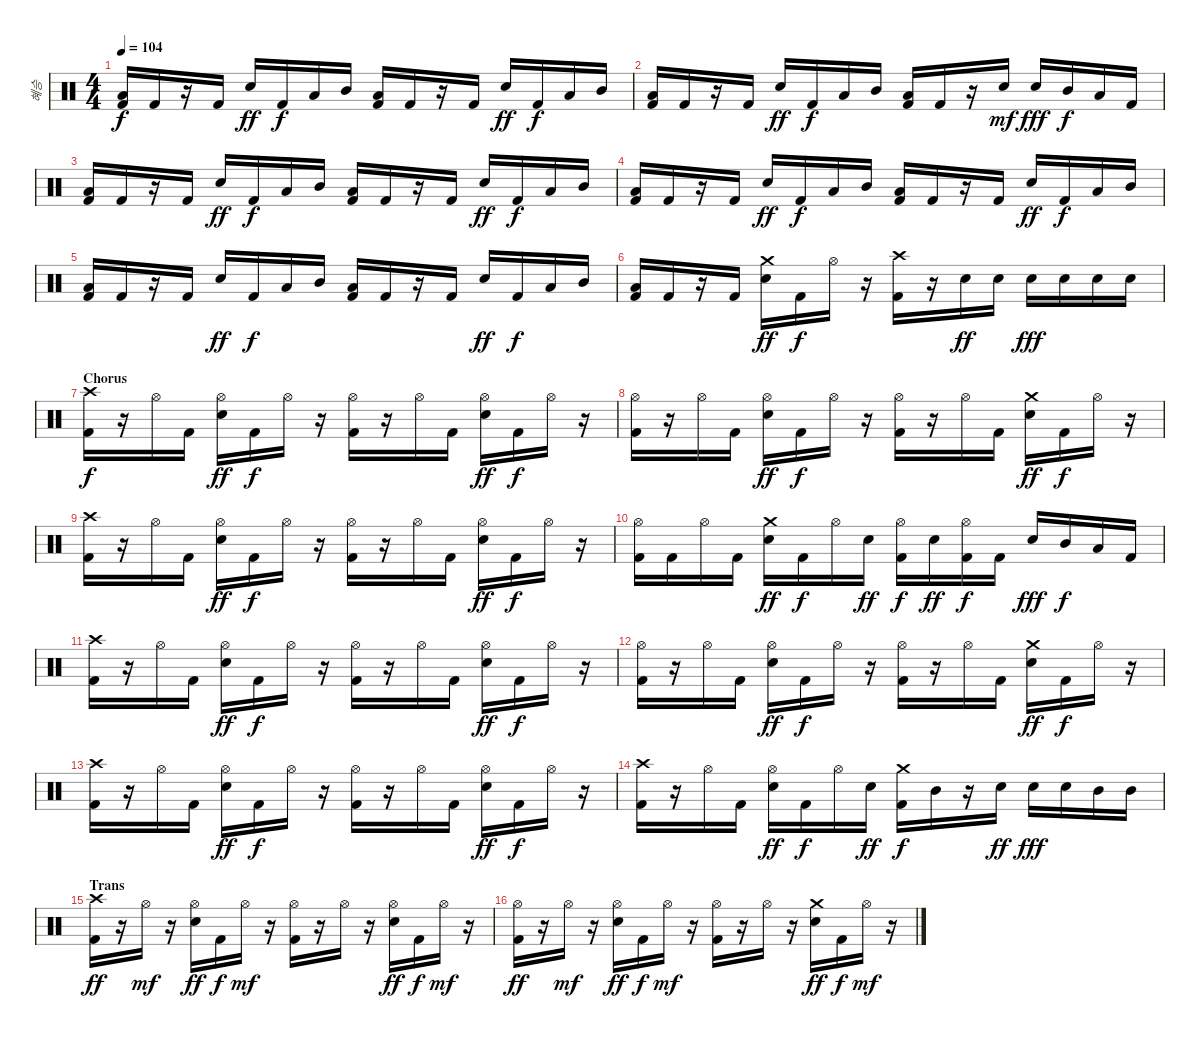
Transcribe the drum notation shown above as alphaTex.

\track ("혜승" "혜승") {instrument percussion}
\staff {score}
\articulation defaults
\ts (4 4)
\tempo 104
\clef neutral
\ks c
("Low Tom (hit)" "Kick (hit) 2").16{dy f} "Kick (hit) 2".16 r.16 "Kick (hit) 2".16 "Electric Snare (hit)".16{dy ff} "Kick (hit) 2".16{dy f} "Low Tom (hit)".16 "Mid Tom (hit)".16 ("Low Tom (hit)" "Kick (hit) 2").16 "Kick (hit) 2".16 r.16 "Kick (hit) 2".16 "Electric Snare (hit)".16{dy ff} "Kick (hit) 2".16{dy f} "Low Tom (hit)".16 "Mid Tom (hit)".16 |
("Low Tom (hit)" "Kick (hit) 2").16 "Kick (hit) 2".16 r.16 "Kick (hit) 2".16 "Electric Snare (hit)".16{dy ff} "Kick (hit) 2".16{dy f} "Low Tom (hit)".16 "Mid Tom (hit)".16 ("Low Tom (hit)" "Kick (hit) 2").16 "Kick (hit) 2".16 r.16 "Electric Snare (hit)".16{dy mf} "Electric Snare (hit)".16{dy fff} "Mid Tom (hit)".16{dy f} "Low Tom (hit)".16 "Kick (hit) 2".16 |
("Low Tom (hit)" "Kick (hit) 2").16 "Kick (hit) 2".16 r.16 "Kick (hit) 2".16 "Electric Snare (hit)".16{dy ff} "Kick (hit) 2".16{dy f} "Low Tom (hit)".16 "Mid Tom (hit)".16 ("Low Tom (hit)" "Kick (hit) 2").16 "Kick (hit) 2".16 r.16 "Kick (hit) 2".16 "Electric Snare (hit)".16{dy ff} "Kick (hit) 2".16{dy f} "Low Tom (hit)".16 "Mid Tom (hit)".16 |
("Low Tom (hit)" "Kick (hit) 2").16 "Kick (hit) 2".16 r.16 "Kick (hit) 2".16 "Electric Snare (hit)".16{dy ff} "Kick (hit) 2".16{dy f} "Low Tom (hit)".16 "Mid Tom (hit)".16 ("Low Tom (hit)" "Kick (hit) 2").16 "Kick (hit) 2".16 r.16 "Kick (hit) 2".16 "Electric Snare (hit)".16{dy ff} "Kick (hit) 2".16{dy f} "Low Tom (hit)".16 "Mid Tom (hit)".16 |
("Low Tom (hit)" "Kick (hit) 2").16 "Kick (hit) 2".16 r.16 "Kick (hit) 2".16 "Electric Snare (hit)".16{dy ff} "Kick (hit) 2".16{dy f} "Low Tom (hit)".16 "Mid Tom (hit)".16 ("Low Tom (hit)" "Kick (hit) 2").16 "Kick (hit) 2".16 r.16 "Kick (hit) 2".16 "Electric Snare (hit)".16{dy ff} "Kick (hit) 2".16{dy f} "Low Tom (hit)".16 "Mid Tom (hit)".16 |
("Low Tom (hit)" "Kick (hit) 2").16 "Kick (hit) 2".16 r.16 "Kick (hit) 2".16 ("Crash medium (hit)" "Electric Snare (hit)").16{dy ff} "Kick (hit) 2".16{dy f} "Hi-Hat (open)".16 r.16 ("Crash high (hit)" "Kick (hit) 2").16 r.16 "Electric Snare (hit)".16{dy ff} "Electric Snare (hit)".16 "Electric Snare (hit)".16{dy fff} "Electric Snare (hit)".16 "Electric Snare (hit)".16 "Electric Snare (hit)".16 |
\section ("" "Chorus")
("Crash high (hit)" "Kick (hit) 2").16{dy f} r.16 "Hi-Hat (open)".16 "Kick (hit) 2".16 ("Hi-Hat (open)" "Electric Snare (hit)").16{dy ff} "Kick (hit) 2".16{dy f} "Hi-Hat (open)".16 r.16 ("Hi-Hat (open)" "Kick (hit) 2").16 r.16 "Hi-Hat (open)".16 "Kick (hit) 2".16 ("Hi-Hat (open)" "Electric Snare (hit)").16{dy ff} "Kick (hit) 2".16{dy f} "Hi-Hat (open)".16 r.16 |
("Hi-Hat (open)" "Kick (hit) 2").16 r.16 "Hi-Hat (open)".16 "Kick (hit) 2".16 ("Hi-Hat (open)" "Electric Snare (hit)").16{dy ff} "Kick (hit) 2".16{dy f} "Hi-Hat (open)".16 r.16 ("Hi-Hat (open)" "Kick (hit) 2").16 r.16 "Hi-Hat (open)".16 "Kick (hit) 2".16 ("Crash medium (hit)" "Electric Snare (hit)").16{dy ff} "Kick (hit) 2".16{dy f} "Hi-Hat (open)".16 r.16 |
("Crash high (hit)" "Kick (hit) 2").16 r.16 "Hi-Hat (open)".16 "Kick (hit) 2".16 ("Hi-Hat (open)" "Electric Snare (hit)").16{dy ff} "Kick (hit) 2".16{dy f} "Hi-Hat (open)".16 r.16 ("Hi-Hat (open)" "Kick (hit) 2").16 r.16 "Hi-Hat (open)".16 "Kick (hit) 2".16 ("Hi-Hat (open)" "Electric Snare (hit)").16{dy ff} "Kick (hit) 2".16{dy f} "Hi-Hat (open)".16 r.16 |
("Hi-Hat (open)" "Kick (hit) 2").16 "Kick (hit) 2".16 "Hi-Hat (open)".16 "Kick (hit) 2".16 ("Crash medium (hit)" "Electric Snare (hit)").16{dy ff} "Kick (hit) 2".16{dy f} "Hi-Hat (open)".16 "Electric Snare (hit)".16{dy ff} ("Hi-Hat (open)" "Kick (hit) 2").16{dy f} "Electric Snare (hit)".16{dy ff} ("Hi-Hat (open)" "Kick (hit) 2").16{dy f} "Kick (hit) 2".16 "Electric Snare (hit)".16{dy fff} "Mid Tom (hit)".16{dy f} "Low Tom (hit)".16 "Kick (hit) 2".16 |
("Crash high (hit)" "Kick (hit) 2").16 r.16 "Hi-Hat (open)".16 "Kick (hit) 2".16 ("Hi-Hat (open)" "Electric Snare (hit)").16{dy ff} "Kick (hit) 2".16{dy f} "Hi-Hat (open)".16 r.16 ("Hi-Hat (open)" "Kick (hit) 2").16 r.16 "Hi-Hat (open)".16 "Kick (hit) 2".16 ("Hi-Hat (open)" "Electric Snare (hit)").16{dy ff} "Kick (hit) 2".16{dy f} "Hi-Hat (open)".16 r.16 |
("Hi-Hat (open)" "Kick (hit) 2").16 r.16 "Hi-Hat (open)".16 "Kick (hit) 2".16 ("Hi-Hat (open)" "Electric Snare (hit)").16{dy ff} "Kick (hit) 2".16{dy f} "Hi-Hat (open)".16 r.16 ("Hi-Hat (open)" "Kick (hit) 2").16 r.16 "Hi-Hat (open)".16 "Kick (hit) 2".16 ("Crash medium (hit)" "Electric Snare (hit)").16{dy ff} "Kick (hit) 2".16{dy f} "Hi-Hat (open)".16 r.16 |
("Crash high (hit)" "Kick (hit) 2").16 r.16 "Hi-Hat (open)".16 "Kick (hit) 2".16 ("Hi-Hat (open)" "Electric Snare (hit)").16{dy ff} "Kick (hit) 2".16{dy f} "Hi-Hat (open)".16 r.16 ("Hi-Hat (open)" "Kick (hit) 2").16 r.16 "Hi-Hat (open)".16 "Kick (hit) 2".16 ("Hi-Hat (open)" "Electric Snare (hit)").16{dy ff} "Kick (hit) 2".16{dy f} "Hi-Hat (open)".16 r.16 |
("Crash high (hit)" "Kick (hit) 2").16 r.16 "Hi-Hat (open)".16 "Kick (hit) 2".16 ("Hi-Hat (open)" "Electric Snare (hit)").16{dy ff} "Kick (hit) 2".16{dy f} "Hi-Hat (open)".16 "Electric Snare (hit)".16{dy ff} ("Crash medium (hit)" "Kick (hit) 2").16{dy f} "Mid Tom (hit)".16 r.16 "Electric Snare (hit)".16{dy ff} "Electric Snare (hit)".16{dy fff} "Electric Snare (hit)".16 "Mid Tom (hit)".16 "Mid Tom (hit)".16 |
\section ("" "Trans")
("Crash high (hit)" "Kick (hit) 2").16{dy ff} r.16 "Hi-Hat (open)".16{dy mf} r.16 ("Hi-Hat (open)" "Electric Snare (hit)").16{dy ff} "Kick (hit) 2".16{dy f} "Hi-Hat (open)".16{dy mf} r.16 ("Hi-Hat (open)" "Kick (hit) 2").16 r.16 "Hi-Hat (open)".16 r.16 ("Hi-Hat (open)" "Electric Snare (hit)").16{dy ff} "Kick (hit) 2".16{dy f} "Hi-Hat (open)".16{dy mf} r.16 |
("Hi-Hat (open)" "Kick (hit) 2").16{dy ff} r.16 "Hi-Hat (open)".16{dy mf} r.16 ("Hi-Hat (open)" "Electric Snare (hit)").16{dy ff} "Kick (hit) 2".16{dy f} "Hi-Hat (open)".16{dy mf} r.16 ("Hi-Hat (open)" "Kick (hit) 2").16 r.16 "Hi-Hat (open)".16 r.16 ("Crash medium (hit)" "Electric Snare (hit)").16{dy ff} "Kick (hit) 2".16{dy f} "Hi-Hat (open)".16{dy mf} r.16
